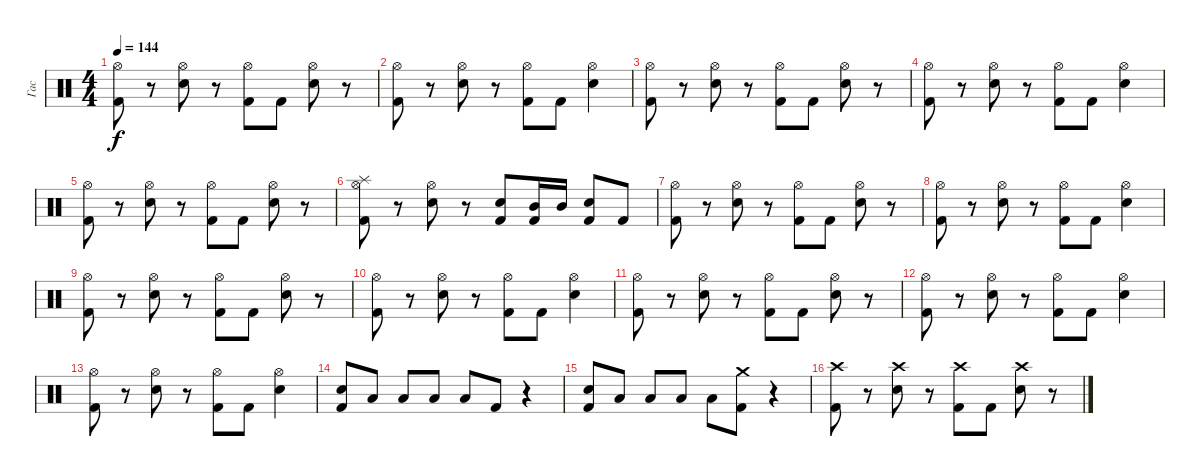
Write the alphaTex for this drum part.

\track ("Гас" "Гас") {instrument percussion}
\staff {score}
\articulation defaults
\ts (4 4)
\tempo 144
\clef neutral
\ks c
("Hi-Hat (open)" "Kick (hit) 2").8{dy f} r.8 ("Hi-Hat (open)" "Electric Snare (hit)").8 r.8 ("Hi-Hat (open)" "Kick (hit) 2").8 "Kick (hit) 2".8 ("Hi-Hat (open)" "Electric Snare (hit)").8 r.8 |
("Hi-Hat (open)" "Kick (hit) 2").8 r.8 ("Hi-Hat (open)" "Electric Snare (hit)").8 r.8 ("Hi-Hat (open)" "Kick (hit) 2").8 "Kick (hit) 2".8 ("Hi-Hat (open)" "Electric Snare (hit)").4 |
("Hi-Hat (open)" "Kick (hit) 2").8 r.8 ("Hi-Hat (open)" "Electric Snare (hit)").8 r.8 ("Hi-Hat (open)" "Kick (hit) 2").8 "Kick (hit) 2".8 ("Hi-Hat (open)" "Electric Snare (hit)").8 r.8 |
("Hi-Hat (open)" "Kick (hit) 2").8 r.8 ("Hi-Hat (open)" "Electric Snare (hit)").8 r.8 ("Hi-Hat (open)" "Kick (hit) 2").8 "Kick (hit) 2".8 ("Hi-Hat (open)" "Electric Snare (hit)").4 |
("Hi-Hat (open)" "Kick (hit) 2").8 r.8 ("Hi-Hat (open)" "Electric Snare (hit)").8 r.8 ("Hi-Hat (open)" "Kick (hit) 2").8 "Kick (hit) 2".8 ("Hi-Hat (open)" "Electric Snare (hit)").8 r.8 |
("Hi-Hat (open)" "Splash (hit)" "Kick (hit) 2").8 r.8 ("Hi-Hat (open)" "Electric Snare (hit)").8 r.8 ("Electric Snare (hit)" "Kick (hit) 2").8 ("Mid Tom (hit)" "Kick (hit) 2").16 "Mid Tom (hit)".16 ("Electric Snare (hit)" "Kick (hit) 2").8 "Kick (hit) 2".8 |
("Hi-Hat (open)" "Kick (hit) 2").8 r.8 ("Hi-Hat (open)" "Electric Snare (hit)").8 r.8 ("Hi-Hat (open)" "Kick (hit) 2").8 "Kick (hit) 2".8 ("Hi-Hat (open)" "Electric Snare (hit)").8 r.8 |
("Hi-Hat (open)" "Kick (hit) 2").8 r.8 ("Hi-Hat (open)" "Electric Snare (hit)").8 r.8 ("Hi-Hat (open)" "Kick (hit) 2").8 "Kick (hit) 2".8 ("Hi-Hat (open)" "Electric Snare (hit)").4 |
("Hi-Hat (open)" "Kick (hit) 2").8 r.8 ("Hi-Hat (open)" "Electric Snare (hit)").8 r.8 ("Hi-Hat (open)" "Kick (hit) 2").8 "Kick (hit) 2".8 ("Hi-Hat (open)" "Electric Snare (hit)").8 r.8 |
("Hi-Hat (open)" "Kick (hit) 2").8 r.8 ("Hi-Hat (open)" "Electric Snare (hit)").8 r.8 ("Hi-Hat (open)" "Kick (hit) 2").8 "Kick (hit) 2".8 ("Hi-Hat (open)" "Electric Snare (hit)").4 |
("Hi-Hat (open)" "Kick (hit) 2").8 r.8 ("Hi-Hat (open)" "Electric Snare (hit)").8 r.8 ("Hi-Hat (open)" "Kick (hit) 2").8 "Kick (hit) 2".8 ("Hi-Hat (open)" "Electric Snare (hit)").8 r.8 |
("Hi-Hat (open)" "Kick (hit) 2").8 r.8 ("Hi-Hat (open)" "Electric Snare (hit)").8 r.8 ("Hi-Hat (open)" "Kick (hit) 2").8 "Kick (hit) 2".8 ("Hi-Hat (open)" "Electric Snare (hit)").4 |
("Hi-Hat (open)" "Kick (hit) 2").8 r.8 ("Hi-Hat (open)" "Electric Snare (hit)").8 r.8 ("Hi-Hat (open)" "Kick (hit) 2").8 "Kick (hit) 2".8 ("Hi-Hat (open)" "Electric Snare (hit)").4 |
("Electric Snare (hit)" "Kick (hit) 2").8 "Low Floor Tom (hit)".8 "Low Floor Tom (hit)".8 "Low Floor Tom (hit)".8 "Low Floor Tom (hit)".8 "Kick (hit) 2".8 r.4 |
("Electric Snare (hit)" "Kick (hit) 2").8 "Low Floor Tom (hit)".8 "Low Floor Tom (hit)".8 "Low Floor Tom (hit)".8 "Low Floor Tom (hit)".8 ("Crash medium (hit)" "Kick (hit) 2").8 r.4 |
("Crash high (hit)" "Kick (hit) 2").8 r.8 ("Crash high (hit)" "Electric Snare (hit)").8 r.8 ("Crash high (hit)" "Kick (hit) 2").8 "Kick (hit) 2".8 ("Crash high (hit)" "Electric Snare (hit)").8 r.8
